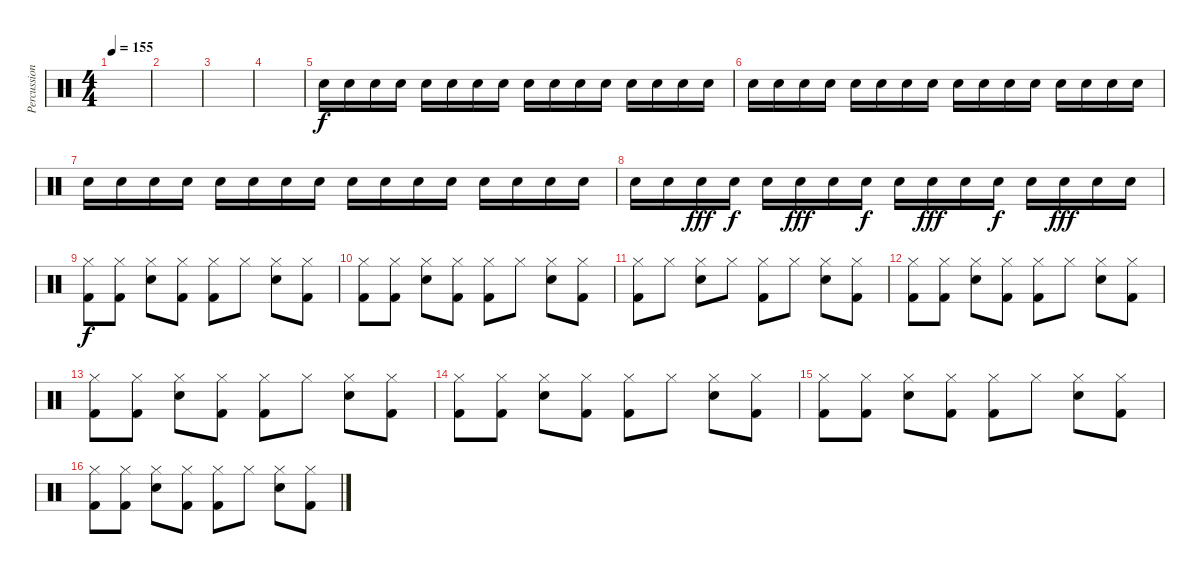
\track ("Percussions" "Percussion") {instrument percussion}
\staff {score}
\articulation defaults
\ts (4 4)
\tempo 155
\clef neutral
\ks c
|
|
|
|
"Snare (hit) 2".16{volume 5} "Snare (hit) 2".16 "Snare (hit) 2".16 "Snare (hit) 2".16 "Snare (hit) 2".16 "Snare (hit) 2".16 "Snare (hit) 2".16 "Snare (hit) 2".16 "Snare (hit) 2".16 "Snare (hit) 2".16 "Snare (hit) 2".16 "Snare (hit) 2".16 "Snare (hit) 2".16 "Snare (hit) 2".16 "Snare (hit) 2".16 "Snare (hit) 2".16 |
"Snare (hit) 2".16 "Snare (hit) 2".16 "Snare (hit) 2".16 "Snare (hit) 2".16 "Snare (hit) 2".16 "Snare (hit) 2".16 "Snare (hit) 2".16 "Snare (hit) 2".16 "Snare (hit) 2".16 "Snare (hit) 2".16 "Snare (hit) 2".16 "Snare (hit) 2".16 "Snare (hit) 2".16 "Snare (hit) 2".16 "Snare (hit) 2".16 "Snare (hit) 2".16 |
"Snare (hit) 2".16 "Snare (hit) 2".16 "Snare (hit) 2".16 "Snare (hit) 2".16 "Snare (hit) 2".16 "Snare (hit) 2".16 "Snare (hit) 2".16 "Snare (hit) 2".16 "Snare (hit) 2".16 "Snare (hit) 2".16 "Snare (hit) 2".16 "Snare (hit) 2".16 "Snare (hit) 2".16 "Snare (hit) 2".16 "Snare (hit) 2".16 "Snare (hit) 2".16 |
"Snare (hit) 2".16 "Snare (hit) 2".16 "Snare (hit) 2".16{dy fff} "Snare (hit) 2".16{dy f} "Snare (hit) 2".16 "Snare (hit) 2".16{dy fff} "Snare (hit) 2".16 "Snare (hit) 2".16{dy f} "Snare (hit) 2".16{volume 8} "Snare (hit) 2".16{dy fff} "Snare (hit) 2".16 "Snare (hit) 2".16{dy f} "Snare (hit) 2".16 "Snare (hit) 2".16{dy fff} "Snare (hit) 2".16 "Snare (hit) 2".16 |
("Hi-Hat (closed)" "Kick (hit) 2").8{dy f volume 10} ("Hi-Hat (closed)" "Kick (hit) 2").8 ("Hi-Hat (closed)" "Electric Snare (hit)").8 ("Hi-Hat (closed)" "Kick (hit) 2").8 ("Hi-Hat (closed)" "Kick (hit) 2").8 "Hi-Hat (closed)".8 ("Hi-Hat (closed)" "Electric Snare (hit)").8 ("Hi-Hat (closed)" "Kick (hit) 2").8 |
("Hi-Hat (closed)" "Kick (hit) 2").8 ("Hi-Hat (closed)" "Kick (hit) 2").8 ("Hi-Hat (closed)" "Electric Snare (hit)").8 ("Hi-Hat (closed)" "Kick (hit) 2").8 ("Hi-Hat (closed)" "Kick (hit) 2").8 "Hi-Hat (closed)".8 ("Hi-Hat (closed)" "Electric Snare (hit)").8 ("Hi-Hat (closed)" "Kick (hit) 2").8 |
("Hi-Hat (closed)" "Kick (hit) 2").8 "Hi-Hat (closed)".8 ("Hi-Hat (closed)" "Electric Snare (hit)").8 "Hi-Hat (closed)".8 ("Hi-Hat (closed)" "Kick (hit) 2").8 "Hi-Hat (closed)".8 ("Hi-Hat (closed)" "Electric Snare (hit)").8 ("Hi-Hat (closed)" "Kick (hit) 2").8 |
("Hi-Hat (closed)" "Kick (hit) 2").8 ("Hi-Hat (closed)" "Kick (hit) 2").8 ("Hi-Hat (closed)" "Electric Snare (hit)").8 ("Hi-Hat (closed)" "Kick (hit) 2").8 ("Hi-Hat (closed)" "Kick (hit) 2").8 "Hi-Hat (closed)".8 ("Hi-Hat (closed)" "Electric Snare (hit)").8 ("Hi-Hat (closed)" "Kick (hit) 2").8 |
("Hi-Hat (closed)" "Kick (hit) 2").8 ("Hi-Hat (closed)" "Kick (hit) 2").8 ("Hi-Hat (closed)" "Electric Snare (hit)").8 ("Hi-Hat (closed)" "Kick (hit) 2").8 ("Hi-Hat (closed)" "Kick (hit) 2").8 "Hi-Hat (closed)".8 ("Hi-Hat (closed)" "Electric Snare (hit)").8 ("Hi-Hat (closed)" "Kick (hit) 2").8 |
("Hi-Hat (closed)" "Kick (hit) 2").8 ("Hi-Hat (closed)" "Kick (hit) 2").8 ("Hi-Hat (closed)" "Electric Snare (hit)").8 ("Hi-Hat (closed)" "Kick (hit) 2").8 ("Hi-Hat (closed)" "Kick (hit) 2").8 "Hi-Hat (closed)".8 ("Hi-Hat (closed)" "Electric Snare (hit)").8 ("Hi-Hat (closed)" "Kick (hit) 2").8 |
("Hi-Hat (closed)" "Kick (hit) 2").8 ("Hi-Hat (closed)" "Kick (hit) 2").8 ("Hi-Hat (closed)" "Electric Snare (hit)").8 ("Hi-Hat (closed)" "Kick (hit) 2").8 ("Hi-Hat (closed)" "Kick (hit) 2").8 "Hi-Hat (closed)".8 ("Hi-Hat (closed)" "Electric Snare (hit)").8 ("Hi-Hat (closed)" "Kick (hit) 2").8 |
("Hi-Hat (closed)" "Kick (hit) 2").8 ("Hi-Hat (closed)" "Kick (hit) 2").8 ("Hi-Hat (closed)" "Electric Snare (hit)").8 ("Hi-Hat (closed)" "Kick (hit) 2").8 ("Hi-Hat (closed)" "Kick (hit) 2").8 "Hi-Hat (closed)".8 ("Hi-Hat (closed)" "Electric Snare (hit)").8 ("Hi-Hat (closed)" "Kick (hit) 2").8
